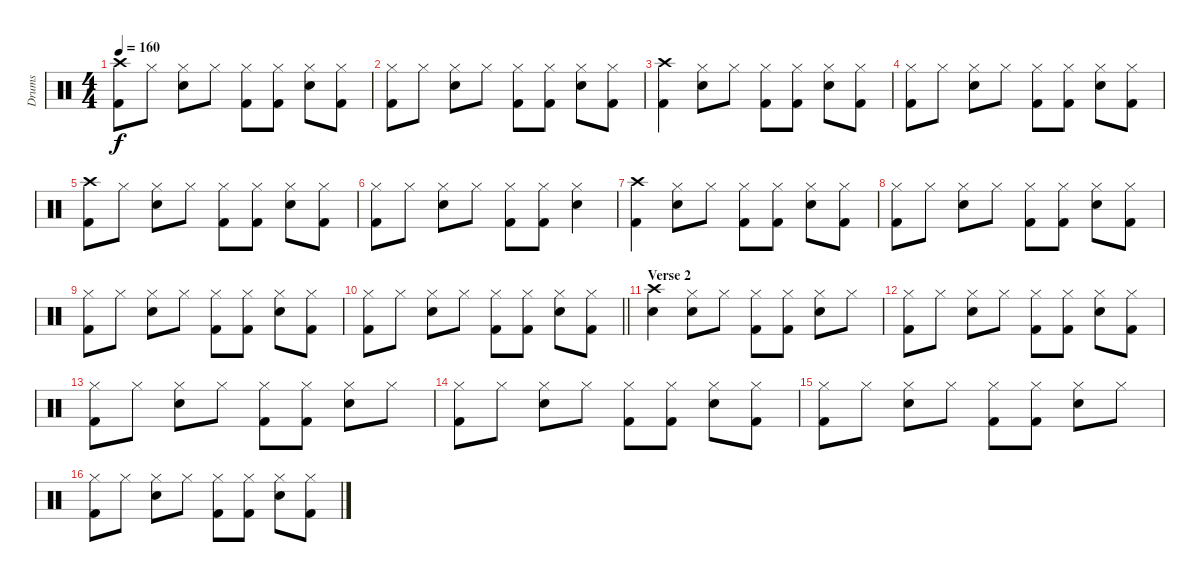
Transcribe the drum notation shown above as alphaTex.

\track ("Drums" "Drums") {instrument percussion}
\staff {score}
\articulation defaults
\ts (4 4)
\tempo 160
\clef neutral
\ks c
("Crash high (hit)" "Kick (hit) 2").8{dy f} "Hi-Hat (closed)".8 ("Hi-Hat (closed)" "Electric Snare (hit)").8 "Hi-Hat (closed)".8 ("Hi-Hat (closed)" "Kick (hit) 2").8 ("Hi-Hat (closed)" "Kick (hit) 2").8 ("Hi-Hat (closed)" "Electric Snare (hit)").8 ("Hi-Hat (closed)" "Kick (hit) 2").8 |
("Hi-Hat (closed)" "Kick (hit) 2").8 "Hi-Hat (closed)".8 ("Hi-Hat (closed)" "Electric Snare (hit)").8 "Hi-Hat (closed)".8 ("Hi-Hat (closed)" "Kick (hit) 2").8 ("Hi-Hat (closed)" "Kick (hit) 2").8 ("Hi-Hat (closed)" "Electric Snare (hit)").8 ("Hi-Hat (closed)" "Kick (hit) 2").8 |
("Crash high (hit)" "Kick (hit) 2").4 ("Hi-Hat (closed)" "Electric Snare (hit)").8 "Hi-Hat (closed)".8 ("Hi-Hat (closed)" "Kick (hit) 2").8 ("Hi-Hat (closed)" "Kick (hit) 2").8 ("Hi-Hat (closed)" "Electric Snare (hit)").8 ("Hi-Hat (closed)" "Kick (hit) 2").8 |
("Hi-Hat (closed)" "Kick (hit) 2").8 "Hi-Hat (closed)".8 ("Hi-Hat (closed)" "Electric Snare (hit)").8 "Hi-Hat (closed)".8 ("Hi-Hat (closed)" "Kick (hit) 2").8 ("Hi-Hat (closed)" "Kick (hit) 2").8 ("Hi-Hat (closed)" "Electric Snare (hit)").8 ("Hi-Hat (closed)" "Kick (hit) 2").8 |
("Crash high (hit)" "Kick (hit) 2").8 "Hi-Hat (closed)".8 ("Hi-Hat (closed)" "Electric Snare (hit)").8 "Hi-Hat (closed)".8 ("Hi-Hat (closed)" "Kick (hit) 2").8 ("Hi-Hat (closed)" "Kick (hit) 2").8 ("Hi-Hat (closed)" "Electric Snare (hit)").8 ("Hi-Hat (closed)" "Kick (hit) 2").8 |
("Hi-Hat (closed)" "Kick (hit) 2").8 "Hi-Hat (closed)".8 ("Hi-Hat (closed)" "Electric Snare (hit)").8 "Hi-Hat (closed)".8 ("Hi-Hat (closed)" "Kick (hit) 2").8 ("Hi-Hat (closed)" "Kick (hit) 2").8 ("Hi-Hat (closed)" "Electric Snare (hit)").4 |
("Crash high (hit)" "Kick (hit) 2").4 ("Hi-Hat (closed)" "Electric Snare (hit)").8 "Hi-Hat (closed)".8 ("Hi-Hat (closed)" "Kick (hit) 2").8 ("Hi-Hat (closed)" "Kick (hit) 2").8 ("Hi-Hat (closed)" "Electric Snare (hit)").8 ("Hi-Hat (closed)" "Kick (hit) 2").8 |
("Hi-Hat (closed)" "Kick (hit) 2").8 "Hi-Hat (closed)".8 ("Hi-Hat (closed)" "Electric Snare (hit)").8 "Hi-Hat (closed)".8 ("Hi-Hat (closed)" "Kick (hit) 2").8 ("Hi-Hat (closed)" "Kick (hit) 2").8 ("Hi-Hat (closed)" "Electric Snare (hit)").8 ("Hi-Hat (closed)" "Kick (hit) 2").8 |
("Hi-Hat (closed)" "Kick (hit) 2").8 "Hi-Hat (closed)".8 ("Hi-Hat (closed)" "Electric Snare (hit)").8 "Hi-Hat (closed)".8 ("Hi-Hat (closed)" "Kick (hit) 2").8 ("Hi-Hat (closed)" "Kick (hit) 2").8 ("Hi-Hat (closed)" "Electric Snare (hit)").8 ("Hi-Hat (closed)" "Kick (hit) 2").8 |
\barLineRight lightlight
("Hi-Hat (closed)" "Kick (hit) 2").8 "Hi-Hat (closed)".8 ("Hi-Hat (closed)" "Electric Snare (hit)").8 "Hi-Hat (closed)".8 ("Hi-Hat (closed)" "Kick (hit) 2").8 ("Hi-Hat (closed)" "Kick (hit) 2").8 ("Hi-Hat (closed)" "Electric Snare (hit)").8 ("Hi-Hat (closed)" "Kick (hit) 2").8 |
\section ("" "Verse 2")
("Crash high (hit)" "Electric Snare (hit)").4 ("Hi-Hat (closed)" "Electric Snare (hit)").8 "Hi-Hat (closed)".8 ("Hi-Hat (closed)" "Kick (hit) 2").8 ("Hi-Hat (closed)" "Kick (hit) 2").8 ("Hi-Hat (closed)" "Electric Snare (hit)").8 "Hi-Hat (closed)".8 |
("Hi-Hat (closed)" "Kick (hit) 2").8 "Hi-Hat (closed)".8 ("Hi-Hat (closed)" "Electric Snare (hit)").8 "Hi-Hat (closed)".8 ("Hi-Hat (closed)" "Kick (hit) 2").8 ("Hi-Hat (closed)" "Kick (hit) 2").8 ("Hi-Hat (closed)" "Electric Snare (hit)").8 ("Hi-Hat (closed)" "Kick (hit) 2").8 |
("Hi-Hat (closed)" "Kick (hit) 2").8 "Hi-Hat (closed)".8 ("Hi-Hat (closed)" "Electric Snare (hit)").8 "Hi-Hat (closed)".8 ("Hi-Hat (closed)" "Kick (hit) 2").8 ("Hi-Hat (closed)" "Kick (hit) 2").8 ("Hi-Hat (closed)" "Electric Snare (hit)").8 "Hi-Hat (closed)".8 |
("Hi-Hat (closed)" "Kick (hit) 2").8 "Hi-Hat (closed)".8 ("Hi-Hat (closed)" "Electric Snare (hit)").8 "Hi-Hat (closed)".8 ("Hi-Hat (closed)" "Kick (hit) 2").8 ("Hi-Hat (closed)" "Kick (hit) 2").8 ("Hi-Hat (closed)" "Electric Snare (hit)").8 ("Hi-Hat (closed)" "Kick (hit) 2").8 |
("Hi-Hat (closed)" "Kick (hit) 2").8 "Hi-Hat (closed)".8 ("Hi-Hat (closed)" "Electric Snare (hit)").8 "Hi-Hat (closed)".8 ("Hi-Hat (closed)" "Kick (hit) 2").8 ("Hi-Hat (closed)" "Kick (hit) 2").8 ("Hi-Hat (closed)" "Electric Snare (hit)").8 "Hi-Hat (closed)".8 |
("Hi-Hat (closed)" "Kick (hit) 2").8 "Hi-Hat (closed)".8 ("Hi-Hat (closed)" "Electric Snare (hit)").8 "Hi-Hat (closed)".8 ("Hi-Hat (closed)" "Kick (hit) 2").8 ("Hi-Hat (closed)" "Kick (hit) 2").8 ("Hi-Hat (closed)" "Electric Snare (hit)").8 ("Hi-Hat (closed)" "Kick (hit) 2").8
